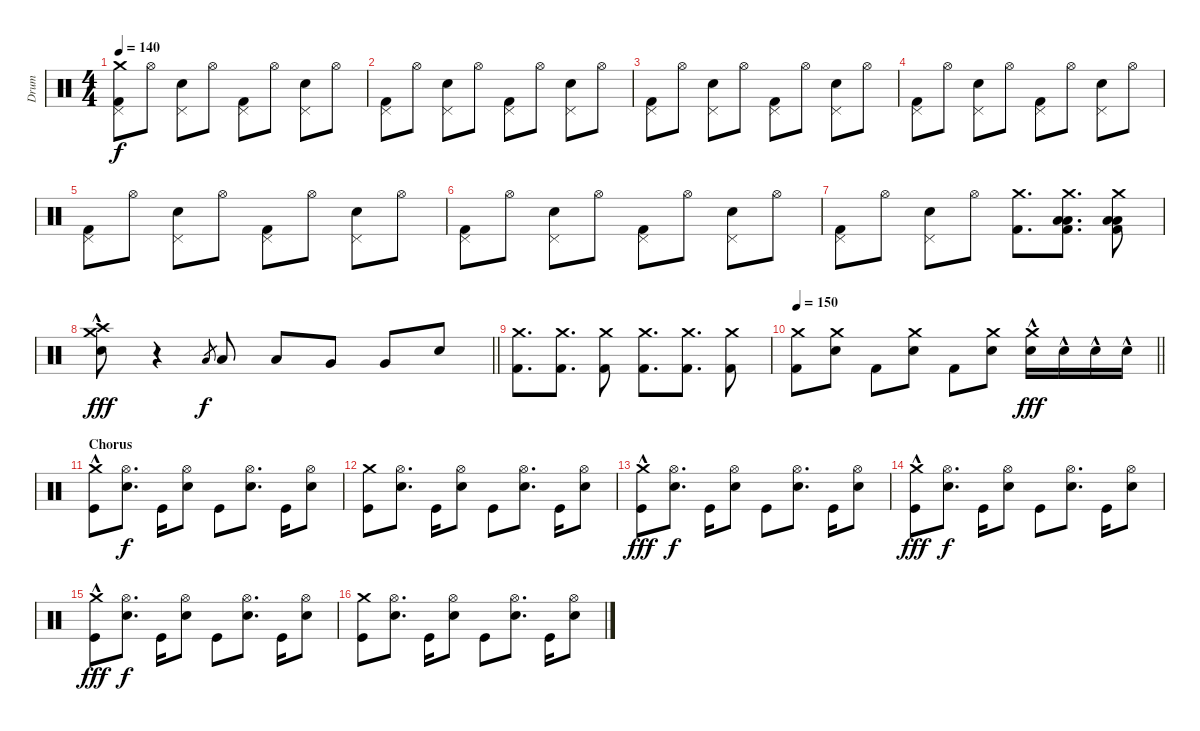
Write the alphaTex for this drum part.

\track ("Drum" "Drum") {instrument percussion}
\staff {score}
\articulation defaults
\ts (4 4)
\tempo 140
\clef neutral
\ks c
("Crash medium (hit)" "Pedal Hi-Hat (hit)" "Kick (hit) 2").8{dy f} "Hi-Hat (open)".8 ("Pedal Hi-Hat (hit)" "Electric Snare (hit)").8 "Hi-Hat (open)".8 ("Pedal Hi-Hat (hit)" "Kick (hit) 2").8 "Hi-Hat (open)".8 ("Pedal Hi-Hat (hit)" "Electric Snare (hit)").8 "Hi-Hat (open)".8 |
("Pedal Hi-Hat (hit)" "Kick (hit) 2").8 "Hi-Hat (open)".8 ("Pedal Hi-Hat (hit)" "Electric Snare (hit)").8 "Hi-Hat (open)".8 ("Pedal Hi-Hat (hit)" "Kick (hit) 2").8 "Hi-Hat (open)".8 ("Pedal Hi-Hat (hit)" "Electric Snare (hit)").8 "Hi-Hat (open)".8 |
("Pedal Hi-Hat (hit)" "Kick (hit) 2").8 "Hi-Hat (open)".8 ("Pedal Hi-Hat (hit)" "Electric Snare (hit)").8 "Hi-Hat (open)".8 ("Pedal Hi-Hat (hit)" "Kick (hit) 2").8 "Hi-Hat (open)".8 ("Pedal Hi-Hat (hit)" "Electric Snare (hit)").8 "Hi-Hat (open)".8 |
("Pedal Hi-Hat (hit)" "Kick (hit) 2").8 "Hi-Hat (open)".8 ("Pedal Hi-Hat (hit)" "Electric Snare (hit)").8 "Hi-Hat (open)".8 ("Pedal Hi-Hat (hit)" "Kick (hit) 2").8 "Hi-Hat (open)".8 ("Pedal Hi-Hat (hit)" "Electric Snare (hit)").8 "Hi-Hat (open)".8 |
("Pedal Hi-Hat (hit)" "Kick (hit) 2").8 "Hi-Hat (open)".8 ("Pedal Hi-Hat (hit)" "Electric Snare (hit)").8 "Hi-Hat (open)".8 ("Pedal Hi-Hat (hit)" "Kick (hit) 2").8 "Hi-Hat (open)".8 ("Pedal Hi-Hat (hit)" "Electric Snare (hit)").8 "Hi-Hat (open)".8 |
("Pedal Hi-Hat (hit)" "Kick (hit) 2").8 "Hi-Hat (open)".8 ("Pedal Hi-Hat (hit)" "Electric Snare (hit)").8 "Hi-Hat (open)".8 ("Pedal Hi-Hat (hit)" "Kick (hit) 2").8 "Hi-Hat (open)".8 ("Pedal Hi-Hat (hit)" "Electric Snare (hit)").8 "Hi-Hat (open)".8 |
("Pedal Hi-Hat (hit)" "Kick (hit) 2").8 "Hi-Hat (open)".8 ("Pedal Hi-Hat (hit)" "Electric Snare (hit)").8 "Hi-Hat (open)".8 ("Crash medium (hit)" "Kick (hit) 2").8{d} ("Crash medium (hit)" "Low Tom (hit)" "Low Tom (hit)" "Kick (hit) 2").8{d} ("Crash medium (hit)" "Low Tom (hit)" "Low Tom (hit)" "Kick (hit) 2").8 |
\barLineRight lightlight
("Crash medium (hit)" "Crash high (hit)" "Electric Snare (hit)"{hac}).8{dy fff} r.4 "Low Tom (hit)".8{gr dy f} "Low Tom (hit)".8 "Low Tom (hit)".8 "Very Low Tom (hit)".8 "Very Low Tom (hit)".8 "Electric Snare (hit)".8 |
("Crash medium (hit)" "Kick (hit) 2").8{d} ("Crash medium (hit)" "Kick (hit) 2").8{d} ("Crash medium (hit)" "Kick (hit) 2").8 ("Crash medium (hit)" "Kick (hit) 2").8{d} ("Crash medium (hit)" "Kick (hit) 2").8{d} ("Crash medium (hit)" "Kick (hit) 2").8 |
\tempo 150
\barLineRight lightlight
("Crash medium (hit)" "Kick (hit) 2").8 ("Crash medium (hit)" "Electric Snare (hit)").8 "Kick (hit) 2".8 ("Crash medium (hit)" "Electric Snare (hit)").8 "Kick (hit) 2".8 ("Crash medium (hit)" "Electric Snare (hit)").8 ("Crash medium (hit)" "Electric Snare (hit)"{hac}).16{dy fff} "Electric Snare (hit)"{hac}.16 "Electric Snare (hit)"{hac}.16 "Electric Snare (hit)"{hac}.16 |
\section ("" "Chorus")
("Crash medium (hit)"{hac} "Kick (hit)").8 ("Hi-Hat (open)" "Electric Snare (hit)").8{d dy f} "Kick (hit)".16 ("Hi-Hat (open)" "Electric Snare (hit)").8 "Kick (hit)".8 ("Hi-Hat (open)" "Electric Snare (hit)").8{d} "Kick (hit)".16 ("Hi-Hat (open)" "Electric Snare (hit)").8 |
("Crash medium (hit)" "Kick (hit)").8 ("Hi-Hat (open)" "Electric Snare (hit)").8{d} "Kick (hit)".16 ("Hi-Hat (open)" "Electric Snare (hit)").8 "Kick (hit)".8 ("Hi-Hat (open)" "Electric Snare (hit)").8{d} "Kick (hit)".16 ("Hi-Hat (open)" "Electric Snare (hit)").8 |
("Crash medium (hit)"{hac} "Kick (hit)").8{dy fff} ("Hi-Hat (open)" "Electric Snare (hit)").8{d dy f} "Kick (hit)".16 ("Hi-Hat (open)" "Electric Snare (hit)").8 "Kick (hit)".8 ("Hi-Hat (open)" "Electric Snare (hit)").8{d} "Kick (hit)".16 ("Hi-Hat (open)" "Electric Snare (hit)").8 |
("Crash medium (hit)"{hac} "Kick (hit)").8{dy fff} ("Hi-Hat (open)" "Electric Snare (hit)").8{d dy f} "Kick (hit)".16 ("Hi-Hat (open)" "Electric Snare (hit)").8 "Kick (hit)".8 ("Hi-Hat (open)" "Electric Snare (hit)").8{d} "Kick (hit)".16 ("Hi-Hat (open)" "Electric Snare (hit)").8 |
("Crash medium (hit)"{hac} "Kick (hit)").8{dy fff} ("Hi-Hat (open)" "Electric Snare (hit)").8{d dy f} "Kick (hit)".16 ("Hi-Hat (open)" "Electric Snare (hit)").8 "Kick (hit)".8 ("Hi-Hat (open)" "Electric Snare (hit)").8{d} "Kick (hit)".16 ("Hi-Hat (open)" "Electric Snare (hit)").8 |
("Crash medium (hit)" "Kick (hit)").8 ("Hi-Hat (open)" "Electric Snare (hit)").8{d} "Kick (hit)".16 ("Hi-Hat (open)" "Electric Snare (hit)").8 "Kick (hit)".8 ("Hi-Hat (open)" "Electric Snare (hit)").8{d} "Kick (hit)".16 ("Hi-Hat (open)" "Electric Snare (hit)").8
